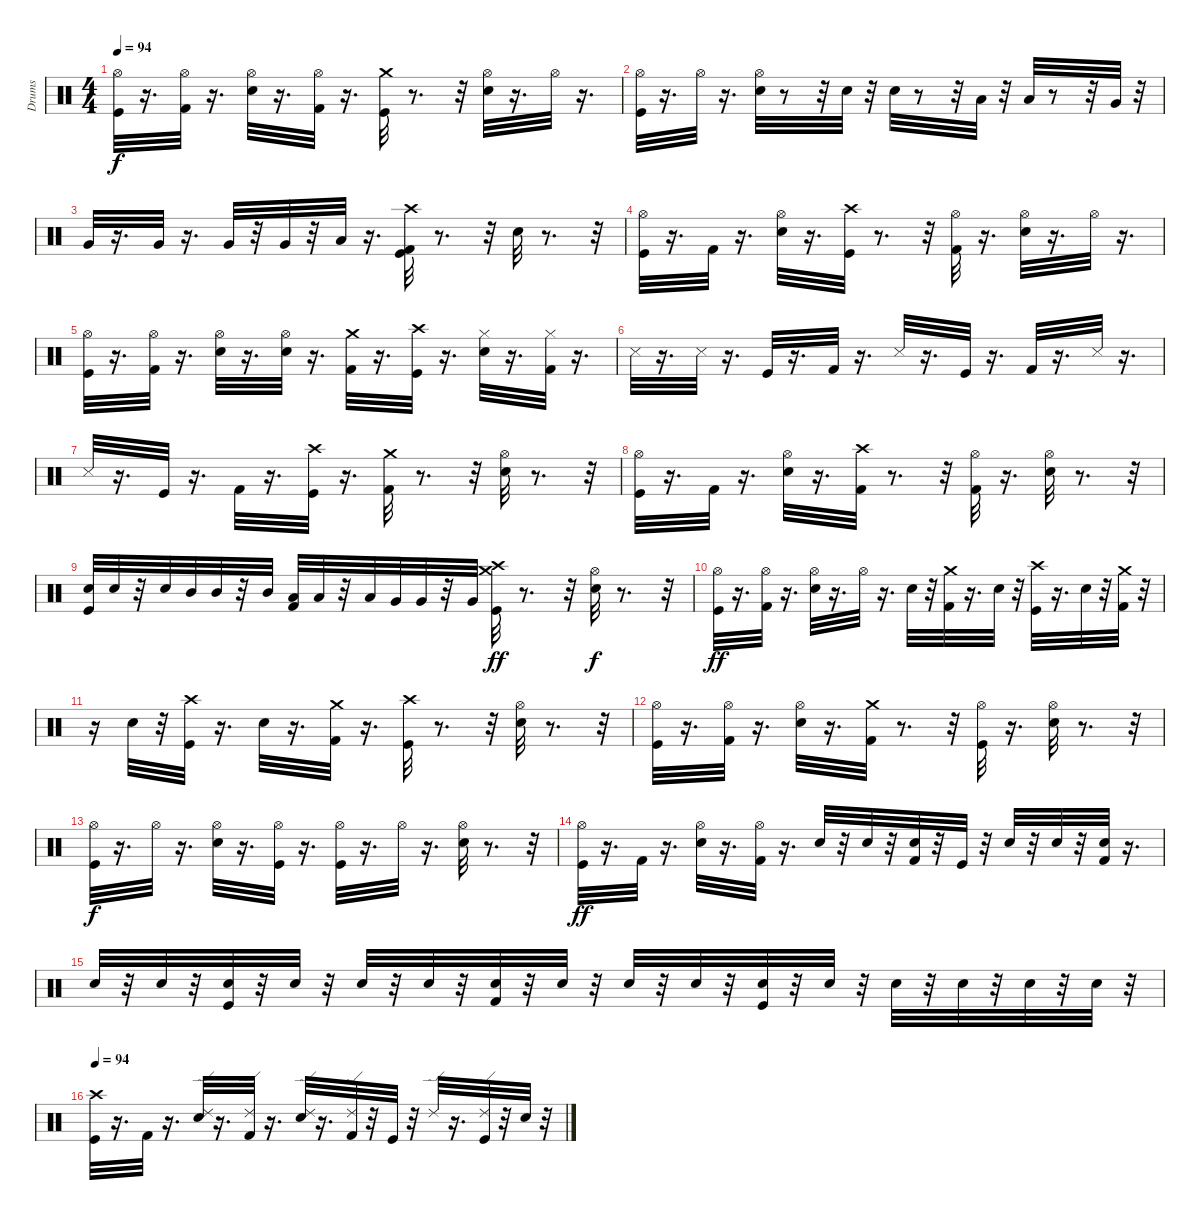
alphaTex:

\track ("Drums" "Drums") {instrument percussion}
\staff {score}
\articulation defaults
\ts (4 4)
\tempo 94
\clef neutral
\ks c
("Hi-Hat (open)" "Kick (hit)").32{dy f} r.16{d} ("Hi-Hat (open)" "Kick (hit) 2").32 r.16{d} ("Hi-Hat (open)" "Electric Snare (hit)").32 r.16{d} ("Hi-Hat (open)" "Kick (hit) 2").32 r.16{d} ("Crash medium (hit)" "Kick (hit)").32 r.8{d} r.32 ("Hi-Hat (open)" "Electric Snare (hit)").32 r.16{d} "Hi-Hat (open)".32 r.16{d} |
("Hi-Hat (open)" "Kick (hit)").32 r.16{d} "Hi-Hat (open)".32 r.16{d} ("Electric Snare (hit)" "Hi-Hat (open)").32 r.8 r.32 "Electric Snare (hit)".32 r.32 "Electric Snare (hit)".32 r.8 r.32 "Low Tom (hit)".32 r.32 "Low Tom (hit)".32 r.8 r.32 "Very Low Tom (hit)".32 r.32 |
"Very Low Tom (hit)".32 r.16{d} "Very Low Tom (hit)".32 r.16{d} "Very Low Tom (hit)".32 r.32 "Very Low Tom (hit)".32 r.32 "Low Floor Tom (hit)".32 r.16{d} ("Kick (hit) 2" "Kick (hit)" "Crash high (hit)").32 r.8{d} r.32 "Electric Snare (hit)".32 r.8{d} r.32 |
("Hi-Hat (open)" "Kick (hit)").32 r.16{d} "Kick (hit) 2".32 r.16{d} ("Hi-Hat (open)" "Electric Snare (hit)").32 r.16{d} ("Crash high (hit)" "Kick (hit)").32 r.8{d} r.32 ("Hi-Hat (open)" "Kick (hit) 2").32 r.16{d} ("Hi-Hat (open)" "Electric Snare (hit)").32 r.16{d} "Hi-Hat (open)".32 r.16{d} |
("Hi-Hat (open)" "Kick (hit)").32 r.16{d} ("Hi-Hat (open)" "Kick (hit) 2").32 r.16{d} ("Hi-Hat (open)" "Electric Snare (hit)").32 r.16{d} ("Hi-Hat (open)" "Electric Snare (hit)").32 r.16{d} ("Crash medium (hit)" "Kick (hit) 2").32 r.16{d} ("Crash high (hit)" "Kick (hit)").32 r.16{d} ("Hi-Hat (closed)" "Electric Snare (hit)").32 r.16{d} ("Hi-Hat (closed)" "Kick (hit) 2").32 r.16{d} |
"Snare (side stick) 3".32 r.16{d} "Snare (side stick) 3".32 r.16{d} "Kick (hit)".32 r.16{d} "Kick (hit) 2".32 r.16{d} "Snare (side stick) 3".32 r.16{d} "Kick (hit)".32 r.16{d} "Kick (hit) 2".32 r.16{d} "Snare (side stick) 3".32 r.16{d} |
"Snare (side stick) 3".32 r.16{d} "Kick (hit)".32 r.16{d} "Kick (hit) 2".32 r.16{d} ("Crash high (hit)" "Kick (hit)").32 r.16{d} ("Crash medium (hit)" "Kick (hit) 2").32 r.8{d} r.32 ("Hi-Hat (open)" "Electric Snare (hit)").32 r.8{d} r.32 |
("Kick (hit)" "Hi-Hat (open)").32 r.16{d} "Kick (hit) 2".32 r.16{d} ("Electric Snare (hit)" "Hi-Hat (open)").32 r.16{d} ("Kick (hit) 2" "Crash high (hit)").32 r.8{d} r.32 ("Kick (hit) 2" "Hi-Hat (open)").32 r.16{d} ("Electric Snare (hit)" "Hi-Hat (open)").32 r.8{d} r.32 |
("Snare (hit) 2" "Kick (hit)").32 "Snare (hit) 2".32 r.32 "Snare (hit) 2".32 "Mid Tom (hit)".32 "Mid Tom (hit)".32 r.32 "Mid Tom (hit)".32 ("Kick (hit) 2" "Low Tom (hit)").32 "Low Tom (hit)".32 r.32 "Low Tom (hit)".32 "Very Low Tom (hit)".32 "Very Low Tom (hit)".32 r.32 "Very Low Tom (hit)".32 ("Crash medium (hit)" "Crash high (hit)" "Kick (hit)").32{dy ff} r.8{d} r.32 ("Electric Snare (hit)" "Hi-Hat (open)").32{dy f} r.8{d} r.32 |
("Hi-Hat (open)" "Kick (hit)").32{dy ff} r.16{d} ("Hi-Hat (open)" "Kick (hit) 2").32 r.16{d} ("Hi-Hat (open)" "Electric Snare (hit)").32 r.16{d} "Hi-Hat (open)".32 r.16{d} "Electric Snare (hit)".32 r.32 ("Kick (hit) 2" "Crash medium (hit)").32 r.16{d} "Electric Snare (hit)".32 r.32 ("Kick (hit)" "Crash high (hit)").32 r.16{d} "Electric Snare (hit)".32 r.32 ("Kick (hit) 2" "Crash medium (hit)").32 r.32 |
r.16 "Electric Snare (hit)".32 r.32 ("Crash high (hit)" "Kick (hit)").32 r.16{d} "Electric Snare (hit)".32 r.16{d} ("Crash medium (hit)" "Kick (hit) 2").32 r.16{d} ("Crash high (hit)" "Kick (hit)").32 r.8{d} r.32 ("Hi-Hat (open)" "Electric Snare (hit)").32 r.8{d} r.32 |
("Hi-Hat (open)" "Kick (hit)").32 r.16{d} ("Hi-Hat (open)" "Kick (hit) 2").32 r.16{d} ("Hi-Hat (open)" "Electric Snare (hit)").32 r.16{d} ("Crash medium (hit)" "Kick (hit) 2").32 r.8{d} r.32 ("Hi-Hat (open)" "Kick (hit)").32 r.16{d} ("Hi-Hat (open)" "Electric Snare (hit)").32 r.8{d} r.32 |
("Kick (hit)" "Hi-Hat (open)").32{dy f} r.16{d} "Hi-Hat (open)".32 r.16{d} ("Electric Snare (hit)" "Hi-Hat (open)").32 r.16{d} ("Kick (hit)" "Hi-Hat (open)").32 r.16{d} ("Kick (hit)" "Hi-Hat (open)").32 r.16{d} "Hi-Hat (open)".32 r.16{d} ("Electric Snare (hit)" "Hi-Hat (open)").32 r.8{d} r.32 |
("Hi-Hat (open)" "Kick (hit)").32{dy ff} r.16{d} "Kick (hit) 2".32 r.16{d} ("Hi-Hat (open)" "Electric Snare (hit)").32 r.16{d} ("Hi-Hat (open)" "Kick (hit) 2").32 r.16{d} "Electric Snare (hit)".32 r.32 "Electric Snare (hit)".32 r.32 ("Kick (hit) 2" "Electric Snare (hit)").32 r.32 "Kick (hit)".32 r.32 "Electric Snare (hit)".32 r.32 "Electric Snare (hit)".32 r.32 ("Kick (hit) 2" "Electric Snare (hit)").32 r.16{d} |
"Electric Snare (hit)".32 r.32 "Electric Snare (hit)".32 r.32 ("Electric Snare (hit)" "Kick (hit)").32 r.32 "Electric Snare (hit)".32 r.32 "Snare (hit) 2".32 r.32 "Snare (hit) 2".32 r.32 ("Snare (hit) 2" "Kick (hit) 2").32 r.32 "Snare (hit) 2".32 r.32 "Electric Snare (hit)".32 r.32 "Snare (hit) 2".32 r.32 ("Electric Snare (hit)" "Kick (hit)").32 r.32 "Snare (hit) 2".32 r.32 "Electric Snare (hit)".32 r.32 "Electric Snare (hit)".32 r.32 "Electric Snare (hit)".32 r.32 "Electric Snare (hit)".32 r.32 |
\tempo 94
("Crash high (hit)" "Kick (hit)").32 r.16{d} "Kick (hit) 2".32 r.16{d} ("Ride (edge) 2" "Electric Snare (hit)").32 r.16{d} ("Ride (edge) 2" "Kick (hit) 2").32 r.16{d} ("Ride (edge) 2" "Electric Snare (hit)").32 r.16{d} ("Ride (edge) 2" "Kick (hit) 2").32 r.32 "Kick (hit)".32 r.32 "Ride (edge) 2".32 r.16{d} ("Ride (edge) 2" "Kick (hit)").32 r.32 "Electric Snare (hit)".32 r.32
